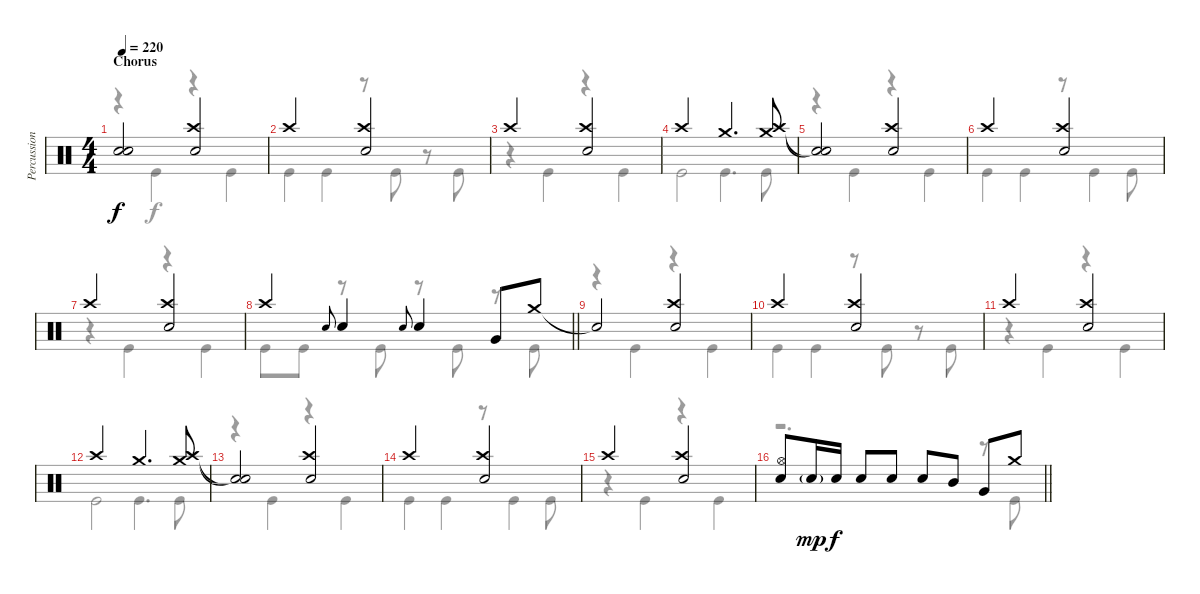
\track ("Percussion" "Percussion") {instrument percussion}
\staff {score}
\articulation defaults
\voice
\ts (4 4)
\section ("" "Chorus")
\tempo 220
\clef neutral
\ks c
("Snare (hit)"{t} "Snare (hit)"{t}).2{dy f} ("Crash high (hit)" "Electric Snare (hit)").2 |
"Crash high (hit)".2 ("Crash high (hit)" "Electric Snare (hit)").2 |
"Crash high (hit)".2 ("Crash high (hit)" "Electric Snare (hit)").2 |
"Crash high (hit)".2 "Crash medium (hit)".4{d} ("Crash medium (hit)" "Crash high (hit)").8 |
("Snare (hit)"{t} "Snare (hit)"{t}).2 ("Crash high (hit)" "Electric Snare (hit)").2 |
"Crash high (hit)".2 ("Crash high (hit)" "Electric Snare (hit)").2 |
"Crash high (hit)".2 ("Crash high (hit)" "Electric Snare (hit)").2 |
\barLineRight lightlight "Crash high (hit)".4 "Electric Snare (hit)".8{gr onbeat} "Electric Snare (hit)".4 "Electric Snare (hit)".8{gr onbeat} "Electric Snare (hit)".4 "Very Low Tom (hit)".8 "Crash medium (hit)".8
|
"Snare (hit)"{t}.2 ("Crash high (hit)" "Electric Snare (hit)").2 |
"Crash high (hit)".2 ("Crash high (hit)" "Electric Snare (hit)").2 |
"Crash high (hit)".2 ("Crash high (hit)" "Electric Snare (hit)").2 |
"Crash high (hit)".2 "Crash medium (hit)".4{d} ("Crash medium (hit)" "Crash high (hit)").8 |
("Snare (hit)"{t} "Snare (hit)"{t}).2 ("Crash high (hit)" "Electric Snare (hit)").2 |
"Crash high (hit)".2 ("Crash high (hit)" "Electric Snare (hit)").2 |
"Crash high (hit)".2 ("Crash high (hit)" "Electric Snare (hit)").2 |
\barLineRight lightlight
("Hi-Hat (open)" "Electric Snare (hit)").8 "Electric Snare (hit)"{g}.16{dy mp} "Electric Snare (hit)".16{dy f} "Electric Snare (hit)".8 "Electric Snare (hit)".8 "Electric Snare (hit)".8 "Mid Tom (hit)".8 "Very Low Tom (hit)".8 "Crash medium (hit)".8
\voice
\clef neutral
\ottava regular
\simile none
\ks c
r.4{dy f} "Kick (hit)".4 r.4 "Kick (hit)".4 |
"Kick (hit)".4 "Kick (hit)".4 r.8 "Kick (hit)".8 r.8 "Kick (hit)".8 |
r.4 "Kick (hit)".4 r.4 "Kick (hit)".4 |
"Kick (hit)".2 "Kick (hit)".4{d} "Kick (hit)".8 |
r.4 "Kick (hit)".4 r.4 "Kick (hit)".4 |
"Kick (hit)".4 "Kick (hit)".4 r.8 "Kick (hit)".4 "Kick (hit)".8 |
r.4 "Kick (hit)".4 r.4 "Kick (hit)".4 |
\barLineRight lightlight "Kick (hit)".8 "Kick (hit)".8
r.8 "Kick (hit)".8 r.8 "Kick (hit)".8 r.8 "Kick (hit)".8 |
r.4 "Kick (hit)".4 r.4 "Kick (hit)".4 |
"Kick (hit)".4 "Kick (hit)".4 r.8 "Kick (hit)".8 r.8 "Kick (hit)".8 |
r.4 "Kick (hit)".4 r.4 "Kick (hit)".4 |
"Kick (hit)".2 "Kick (hit)".4{d} "Kick (hit)".8 |
r.4 "Kick (hit)".4 r.4 "Kick (hit)".4 |
"Kick (hit)".4 "Kick (hit)".4 r.8 "Kick (hit)".4 "Kick (hit)".8 |
r.4 "Kick (hit)".4 r.4 "Kick (hit)".4 |
\barLineRight lightlight
r.2{d} r.8 "Kick (hit)".8
